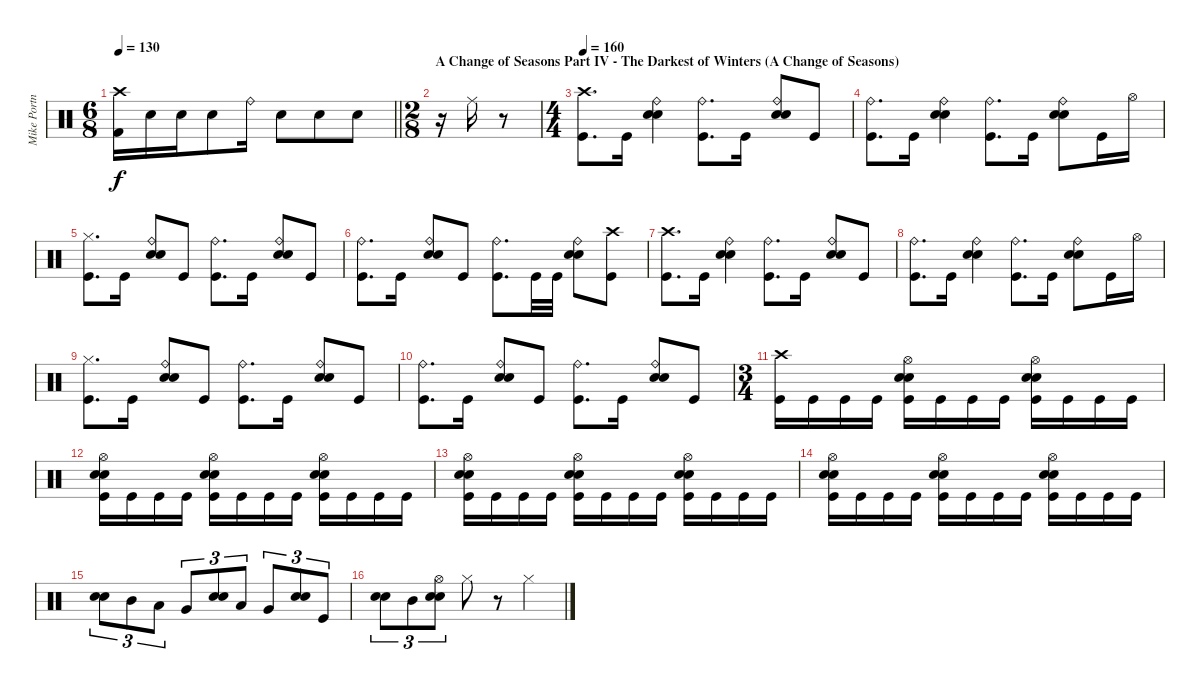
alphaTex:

\track ("Mike Portnoy Drums" "Mike Portn") {instrument percussion}
\staff {score}
\articulation defaults
\ts (6 8)
\tempo 130
\clef neutral
\barLineRight lightlight
\ks c
("Crash high (hit)" "Kick (hit) 2").16{dy f} "Electric Snare (hit)".16 "Electric Snare (hit)".16 "Electric Snare (hit)".8 "Ride (bell)".16 "Electric Snare (hit)".8 "Electric Snare (hit)".8 "Electric Snare (hit)".8 |
\ts (2 8)
\section ("" "A Change of Seasons Part IV - The Darkest of Winters (A Change of Seasons)")
r.16 "Ride (middle)".16 r.8 |
\ts (4 4)
\tempo 160
("Crash high (hit)" "Kick (hit)").8{d} "Kick (hit)".16 ("Ride (bell)" "Snare (hit) 2" "Electric Snare (hit)").4 ("Ride (bell)" "Kick (hit)").8{d} "Kick (hit)".16 ("Ride (bell)" "Snare (hit) 2" "Electric Snare (hit)").8 "Kick (hit)".8 |
("Ride (bell)" "Kick (hit)").8{d} "Kick (hit)".16 ("Ride (bell)" "Snare (hit) 2" "Electric Snare (hit)").4 ("Ride (bell)" "Kick (hit)").8{d} "Kick (hit)".16 ("Ride (bell)" "Snare (hit) 2" "Electric Snare (hit)").8 "Kick (hit)".16 "Hi-Hat (open)".16 |
("Hi-Hat (closed)" "Kick (hit)").8{d} "Kick (hit)".16 ("Ride (bell)" "Snare (hit) 2" "Electric Snare (hit)").8 "Kick (hit)".8 ("Ride (bell)" "Kick (hit)").8{d} "Kick (hit)".16 ("Ride (bell)" "Snare (hit) 2" "Electric Snare (hit)").8 "Kick (hit)".8 |
("Ride (bell)" "Kick (hit)").8{d} "Kick (hit)".16 ("Ride (bell)" "Snare (hit) 2" "Electric Snare (hit)").8 "Kick (hit)".8 ("Ride (bell)" "Kick (hit)").8{d} "Kick (hit)".32 "Kick (hit)".32 ("Ride (bell)" "Snare (hit) 2" "Electric Snare (hit)").8 ("Crash high (hit)" "Kick (hit)").8 |
("Crash high (hit)" "Kick (hit)").8{d} "Kick (hit)".16 ("Ride (bell)" "Snare (hit) 2" "Electric Snare (hit)").4 ("Ride (bell)" "Kick (hit)").8{d} "Kick (hit)".16 ("Ride (bell)" "Snare (hit) 2" "Electric Snare (hit)").8 "Kick (hit)".8 |
("Ride (bell)" "Kick (hit)").8{d} "Kick (hit)".16 ("Ride (bell)" "Snare (hit) 2" "Electric Snare (hit)").4 ("Ride (bell)" "Kick (hit)").8{d} "Kick (hit)".16 ("Ride (bell)" "Snare (hit) 2" "Electric Snare (hit)").8 "Kick (hit)".16 "Hi-Hat (open)".16 |
("Hi-Hat (closed)" "Kick (hit)").8{d} "Kick (hit)".16 ("Ride (bell)" "Snare (hit) 2" "Electric Snare (hit)").8 "Kick (hit)".8 ("Ride (bell)" "Kick (hit)").8{d} "Kick (hit)".16 ("Ride (bell)" "Snare (hit) 2" "Electric Snare (hit)").8 "Kick (hit)".8 |
("Ride (bell)" "Kick (hit)").8{d} "Kick (hit)".16 ("Ride (bell)" "Snare (hit) 2" "Electric Snare (hit)").8 "Kick (hit)".8 ("Ride (bell)" "Kick (hit)").8{d} "Kick (hit)".16 ("Ride (bell)" "Snare (hit) 2" "Electric Snare (hit)").8 "Kick (hit)".8 |
\ts (3 4)
("Crash high (hit)" "Kick (hit)").16 "Kick (hit)".16 "Kick (hit)".16 "Kick (hit)".16 ("Hi-Hat (open)" "Snare (hit) 2" "Electric Snare (hit)" "Kick (hit)").16 "Kick (hit)".16 "Kick (hit)".16 "Kick (hit)".16 ("Hi-Hat (open)" "Snare (hit) 2" "Electric Snare (hit)" "Kick (hit)").16 "Kick (hit)".16 "Kick (hit)".16 "Kick (hit)".16 |
("Hi-Hat (open)" "Snare (hit) 2" "Electric Snare (hit)" "Kick (hit)").16 "Kick (hit)".16 "Kick (hit)".16 "Kick (hit)".16 ("Hi-Hat (open)" "Snare (hit) 2" "Electric Snare (hit)" "Kick (hit)").16 "Kick (hit)".16 "Kick (hit)".16 "Kick (hit)".16 ("Hi-Hat (open)" "Snare (hit) 2" "Electric Snare (hit)" "Kick (hit)").16 "Kick (hit)".16 "Kick (hit)".16 "Kick (hit)".16 |
("Hi-Hat (open)" "Snare (hit) 2" "Electric Snare (hit)" "Kick (hit)").16 "Kick (hit)".16 "Kick (hit)".16 "Kick (hit)".16 ("Hi-Hat (open)" "Snare (hit) 2" "Electric Snare (hit)" "Kick (hit)").16 "Kick (hit)".16 "Kick (hit)".16 "Kick (hit)".16 ("Hi-Hat (open)" "Snare (hit) 2" "Electric Snare (hit)" "Kick (hit)").16 "Kick (hit)".16 "Kick (hit)".16 "Kick (hit)".16 |
("Hi-Hat (open)" "Snare (hit) 2" "Electric Snare (hit)" "Kick (hit)").16 "Kick (hit)".16 "Kick (hit)".16 "Kick (hit)".16 ("Hi-Hat (open)" "Snare (hit) 2" "Electric Snare (hit)" "Kick (hit)").16 "Kick (hit)".16 "Kick (hit)".16 "Kick (hit)".16 ("Hi-Hat (open)" "Snare (hit) 2" "Electric Snare (hit)" "Kick (hit)").16 "Kick (hit)".16 "Kick (hit)".16 "Kick (hit)".16 |
("Snare (hit) 2" "Electric Snare (hit)").8{tu (3 2)} "Mid Tom (hit)".8{tu (3 2)} "Low Tom (hit)".8{tu (3 2)} "Very Low Tom (hit)".8{tu (3 2)} ("Snare (hit) 2" "Electric Snare (hit)").8{tu (3 2)} "Low Tom (hit)".8{tu (3 2)} "Very Low Tom (hit)".8{tu (3 2)} ("Snare (hit) 2" "Electric Snare (hit)").8{tu (3 2)} "Kick (hit)".8{tu (3 2)} |
("Snare (hit) 2" "Electric Snare (hit)").8{tu (3 2)} "Mid Tom (hit)".8{tu (3 2)} ("Hi-Hat (open)" "Snare (hit) 2" "Electric Snare (hit)").8{tu (3 2)} "Hi-Hat (closed)".8 r.8 "Hi-Hat (closed)".4
